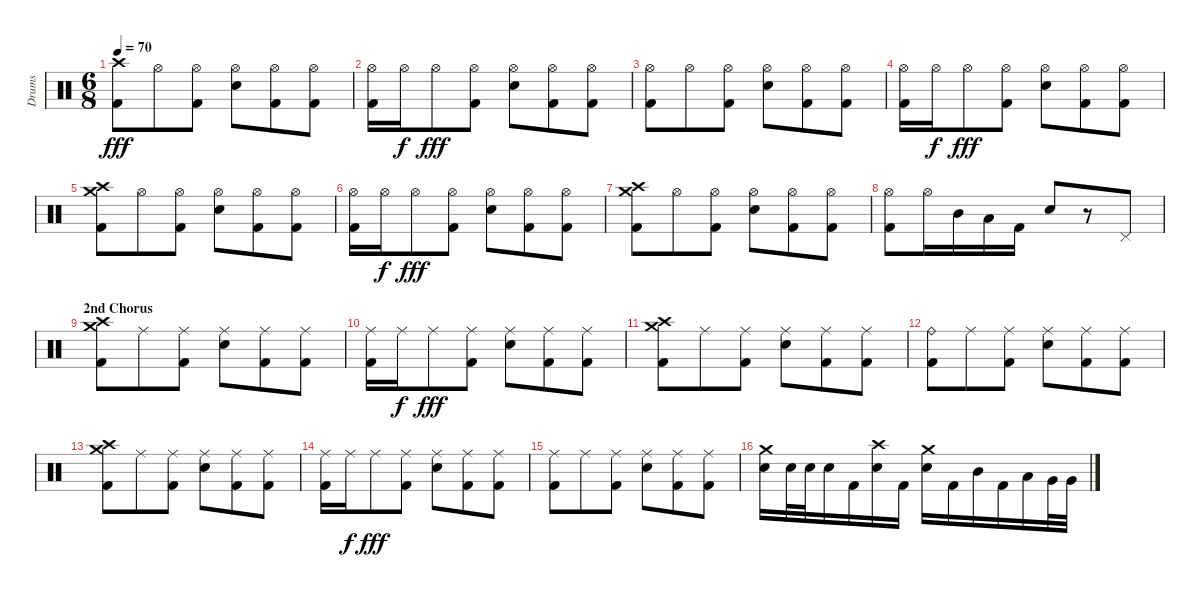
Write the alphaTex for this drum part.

\track ("Drums" "Drums") {instrument percussion}
\staff {score}
\articulation defaults
\ts (6 8)
\tempo 70
\clef neutral
\ks c
("Crash high (hit)" "Kick (hit) 2").8{dy fff} "Hi-Hat (open)".8 ("Hi-Hat (open)" "Kick (hit) 2").8 ("Hi-Hat (open)" "Electric Snare (hit)").8 ("Hi-Hat (open)" "Kick (hit) 2").8 ("Hi-Hat (open)" "Kick (hit) 2").8 |
("Hi-Hat (open)" "Kick (hit) 2").16 "Hi-Hat (open)".16{dy f} "Hi-Hat (open)".8{dy fff} ("Hi-Hat (open)" "Kick (hit) 2").8 ("Hi-Hat (open)" "Electric Snare (hit)").8 ("Hi-Hat (open)" "Kick (hit) 2").8 ("Hi-Hat (open)" "Kick (hit) 2").8 |
("Hi-Hat (open)" "Kick (hit) 2").8 "Hi-Hat (open)".8 ("Hi-Hat (open)" "Kick (hit) 2").8 ("Hi-Hat (open)" "Electric Snare (hit)").8 ("Hi-Hat (open)" "Kick (hit) 2").8 ("Hi-Hat (open)" "Kick (hit) 2").8 |
("Hi-Hat (open)" "Kick (hit) 2").16 "Hi-Hat (open)".16{dy f} "Hi-Hat (open)".8{dy fff} ("Hi-Hat (open)" "Kick (hit) 2").8 ("Hi-Hat (open)" "Electric Snare (hit)").8 ("Hi-Hat (open)" "Kick (hit) 2").8 ("Hi-Hat (open)" "Kick (hit) 2").8 |
("Crash high (hit)" "Crash medium (hit)" "Kick (hit) 2").8 "Hi-Hat (open)".8 ("Hi-Hat (open)" "Kick (hit) 2").8 ("Hi-Hat (open)" "Electric Snare (hit)").8 ("Hi-Hat (open)" "Kick (hit) 2").8 ("Hi-Hat (open)" "Kick (hit) 2").8 |
("Hi-Hat (open)" "Kick (hit) 2").16 "Hi-Hat (open)".16{dy f} "Hi-Hat (open)".8{dy fff} ("Hi-Hat (open)" "Kick (hit) 2").8 ("Hi-Hat (open)" "Electric Snare (hit)").8 ("Hi-Hat (open)" "Kick (hit) 2").8 ("Hi-Hat (open)" "Kick (hit) 2").8 |
("Crash high (hit)" "Crash medium (hit)" "Kick (hit) 2").8 "Hi-Hat (open)".8 ("Hi-Hat (open)" "Kick (hit) 2").8 ("Hi-Hat (open)" "Electric Snare (hit)").8 ("Hi-Hat (open)" "Kick (hit) 2").8 ("Hi-Hat (open)" "Kick (hit) 2").8 |
("Hi-Hat (open)" "Kick (hit) 2").8 "Hi-Hat (open)".16 "Mid Tom (hit)".16 "Low Tom (hit)".16 "Kick (hit) 2".16 "Electric Snare (hit)".8 r.8 "Pedal Hi-Hat (hit)".8 |
\section ("" "2nd Chorus")
("Crash high (hit)" "Crash medium (hit)" "Kick (hit) 2").8 "Ride (middle)".8 ("Ride (middle)" "Kick (hit) 2").8 ("Ride (middle)" "Electric Snare (hit)").8 ("Ride (middle)" "Kick (hit) 2").8 ("Ride (middle)" "Kick (hit) 2").8 |
("Ride (middle)" "Kick (hit) 2").16 "Ride (middle)".16{dy f} "Ride (middle)".8{dy fff} ("Ride (middle)" "Kick (hit) 2").8 ("Ride (middle)" "Electric Snare (hit)").8 ("Ride (middle)" "Kick (hit) 2").8 ("Ride (middle)" "Kick (hit) 2").8 |
("Crash high (hit)" "Crash medium (hit)" "Kick (hit) 2").8 "Ride (middle)".8 ("Ride (middle)" "Kick (hit) 2").8 ("Ride (middle)" "Electric Snare (hit)").8 ("Ride (middle)" "Kick (hit) 2").8 ("Ride (middle)" "Kick (hit) 2").8 |
("Ride (bell)" "Kick (hit) 2").8 "Ride (middle)".8 ("Ride (middle)" "Kick (hit) 2").8 ("Ride (middle)" "Electric Snare (hit)").8 ("Ride (middle)" "Kick (hit) 2").8 ("Ride (middle)" "Kick (hit) 2").8 |
("Crash high (hit)" "Crash medium (hit)" "Kick (hit) 2").8 "Ride (middle)".8 ("Ride (middle)" "Kick (hit) 2").8 ("Ride (middle)" "Electric Snare (hit)").8 ("Ride (middle)" "Kick (hit) 2").8 ("Ride (middle)" "Kick (hit) 2").8 |
("Ride (middle)" "Kick (hit) 2").16 "Ride (middle)".16{dy f} "Ride (middle)".8{dy fff} ("Ride (middle)" "Kick (hit) 2").8 ("Ride (middle)" "Electric Snare (hit)").8 ("Ride (middle)" "Kick (hit) 2").8 ("Ride (middle)" "Kick (hit) 2").8 |
("Ride (middle)" "Kick (hit) 2").8 "Ride (middle)".8 ("Ride (middle)" "Kick (hit) 2").8 ("Ride (middle)" "Electric Snare (hit)").8 ("Ride (middle)" "Kick (hit) 2").8 ("Ride (middle)" "Kick (hit) 2").8 |
("Crash medium (hit)" "Electric Snare (hit)").16 "Electric Snare (hit)".32 "Electric Snare (hit)".32 "Electric Snare (hit)".16 "Kick (hit) 2".16 ("Crash high (hit)" "Electric Snare (hit)").16 "Kick (hit) 2".16 ("Crash medium (hit)" "Electric Snare (hit)").16 "Kick (hit) 2".16 "Mid Tom (hit)".16 "Kick (hit) 2".16 "Low Tom (hit)".16 "Very Low Tom (hit)".32 "Very Low Tom (hit)".32
